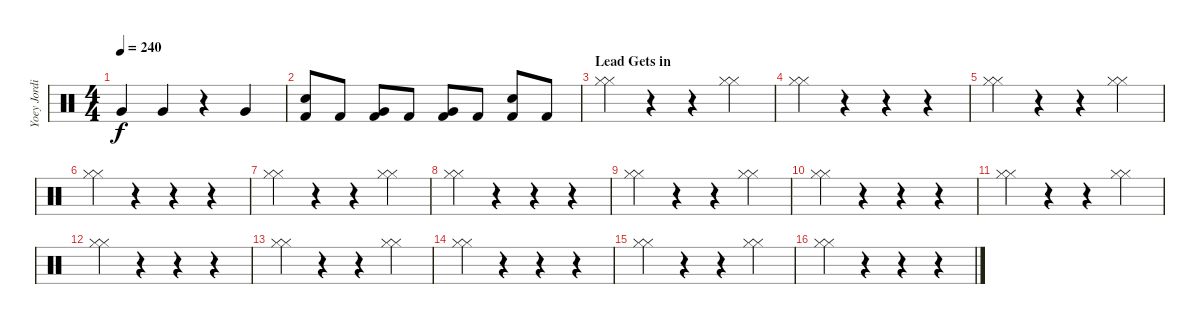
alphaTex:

\track ("Yoey Jordison" "Yoey Jordi") {instrument percussion}
\staff {score}
\articulation defaults
\ts (4 4)
\tempo 240
\clef neutral
\ks c "Very Low Tom (hit)".4{dy f} "Very Low Tom (hit)".4
r.4 "Very Low Tom (hit)".4 |
("Kick (hit) 2" "Snare (hit) 2").8 "Kick (hit) 2".8 ("Kick (hit) 2" "Very Low Tom (hit)").8 "Kick (hit) 2".8 ("Kick (hit) 2" "Very Low Tom (hit)").8 "Kick (hit) 2".8 ("Kick (hit) 2" "Snare (hit) 2").8 "Kick (hit) 2".8 |
\section ("" "Lead Gets in")
("Hi-Hat (closed)" "Hi-Hat (closed)").4 r.4 r.4 ("Hi-Hat (closed)" "Hi-Hat (closed)").4 |
("Hi-Hat (closed)" "Hi-Hat (closed)").4 r.4 r.4 r.4 |
("Hi-Hat (closed)" "Hi-Hat (closed)").4 r.4 r.4 ("Hi-Hat (closed)" "Hi-Hat (closed)").4 |
("Hi-Hat (closed)" "Hi-Hat (closed)").4 r.4 r.4 r.4 |
("Hi-Hat (closed)" "Hi-Hat (closed)").4 r.4 r.4 ("Hi-Hat (closed)" "Hi-Hat (closed)").4 |
("Hi-Hat (closed)" "Hi-Hat (closed)").4 r.4 r.4 r.4 |
("Hi-Hat (closed)" "Hi-Hat (closed)").4 r.4 r.4 ("Hi-Hat (closed)" "Hi-Hat (closed)").4 |
("Hi-Hat (closed)" "Hi-Hat (closed)").4 r.4 r.4 r.4 |
("Hi-Hat (closed)" "Hi-Hat (closed)").4 r.4 r.4 ("Hi-Hat (closed)" "Hi-Hat (closed)").4 |
("Hi-Hat (closed)" "Hi-Hat (closed)").4 r.4 r.4 r.4 |
("Hi-Hat (closed)" "Hi-Hat (closed)").4 r.4 r.4 ("Hi-Hat (closed)" "Hi-Hat (closed)").4 |
("Hi-Hat (closed)" "Hi-Hat (closed)").4 r.4 r.4 r.4 |
("Hi-Hat (closed)" "Hi-Hat (closed)").4 r.4 r.4 ("Hi-Hat (closed)" "Hi-Hat (closed)").4 |
("Hi-Hat (closed)" "Hi-Hat (closed)").4 r.4 r.4 r.4
